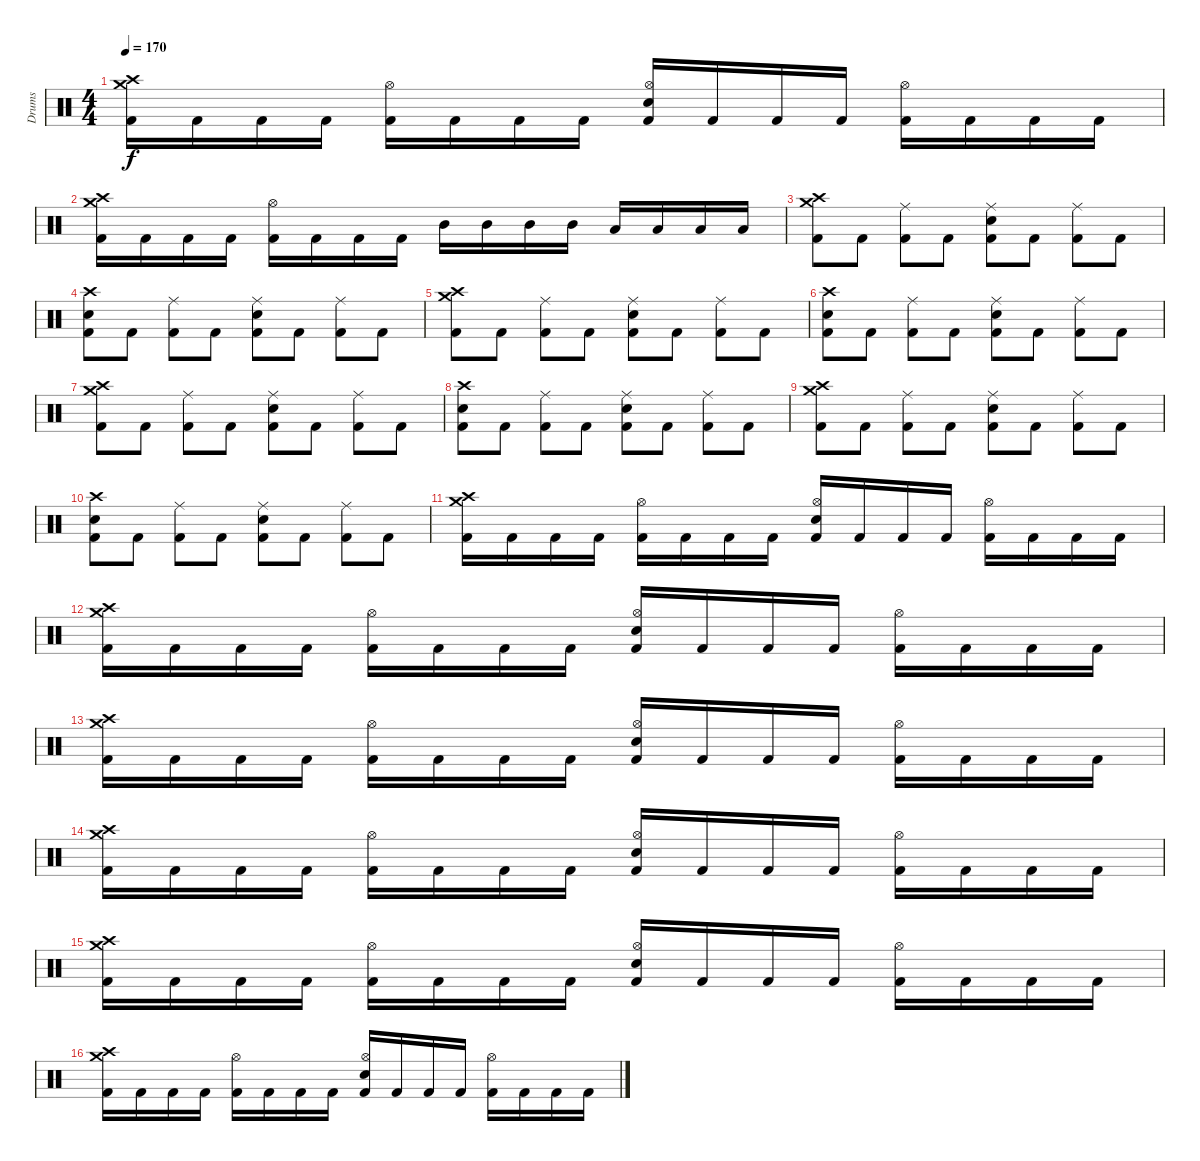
\track ("Drums" "Drums") {instrument percussion}
\staff {score}
\articulation defaults
\ts (4 4)
\tempo 170
\clef neutral
\ks c
("Crash medium (hit)" "Crash high (hit)" "Kick (hit) 2").16{dy f} "Kick (hit) 2".16 "Kick (hit) 2".16 "Kick (hit) 2".16 ("Hi-Hat (open)" "Kick (hit) 2").16 "Kick (hit) 2".16 "Kick (hit) 2".16 "Kick (hit) 2".16 ("Hi-Hat (open)" "Snare (hit) 2" "Kick (hit) 2").16 "Kick (hit) 2".16 "Kick (hit) 2".16 "Kick (hit) 2".16 ("Hi-Hat (open)" "Kick (hit) 2").16 "Kick (hit) 2".16 "Kick (hit) 2".16 "Kick (hit) 2".16 |
("Crash medium (hit)" "Crash high (hit)" "Kick (hit) 2").16 "Kick (hit) 2".16 "Kick (hit) 2".16 "Kick (hit) 2".16 ("Hi-Hat (open)" "Kick (hit) 2").16 "Kick (hit) 2".16 "Kick (hit) 2".16 "Kick (hit) 2".16 "Mid Tom (hit)".16 "Mid Tom (hit)".16 "Mid Tom (hit)".16 "Mid Tom (hit)".16 "Low Tom (hit)".16 "Low Tom (hit)".16 "Low Tom (hit)".16 "Low Tom (hit)".16 |
("Crash high (hit)" "Crash medium (hit)" "Kick (hit) 2").8 "Kick (hit) 2".8 ("Ride (middle)" "Kick (hit) 2").8 "Kick (hit) 2".8 ("Ride (middle)" "Snare (hit) 2" "Kick (hit) 2").8 "Kick (hit) 2".8 ("Ride (middle)" "Kick (hit) 2").8 "Kick (hit) 2".8 |
("Crash high (hit)" "Snare (hit) 2" "Kick (hit) 2").8 "Kick (hit) 2".8 ("Ride (middle)" "Kick (hit) 2").8 "Kick (hit) 2".8 ("Ride (middle)" "Snare (hit) 2" "Kick (hit) 2").8 "Kick (hit) 2".8 ("Ride (middle)" "Kick (hit) 2").8 "Kick (hit) 2".8 |
("Crash high (hit)" "Crash medium (hit)" "Kick (hit) 2").8 "Kick (hit) 2".8 ("Ride (middle)" "Kick (hit) 2").8 "Kick (hit) 2".8 ("Ride (middle)" "Snare (hit) 2" "Kick (hit) 2").8 "Kick (hit) 2".8 ("Ride (middle)" "Kick (hit) 2").8 "Kick (hit) 2".8 |
("Crash high (hit)" "Snare (hit) 2" "Kick (hit) 2").8 "Kick (hit) 2".8 ("Ride (middle)" "Kick (hit) 2").8 "Kick (hit) 2".8 ("Ride (middle)" "Snare (hit) 2" "Kick (hit) 2").8 "Kick (hit) 2".8 ("Ride (middle)" "Kick (hit) 2").8 "Kick (hit) 2".8 |
("Crash high (hit)" "Crash medium (hit)" "Kick (hit) 2").8 "Kick (hit) 2".8 ("Ride (middle)" "Kick (hit) 2").8 "Kick (hit) 2".8 ("Ride (middle)" "Snare (hit) 2" "Kick (hit) 2").8 "Kick (hit) 2".8 ("Ride (middle)" "Kick (hit) 2").8 "Kick (hit) 2".8 |
("Crash high (hit)" "Snare (hit) 2" "Kick (hit) 2").8 "Kick (hit) 2".8 ("Ride (middle)" "Kick (hit) 2").8 "Kick (hit) 2".8 ("Ride (middle)" "Snare (hit) 2" "Kick (hit) 2").8 "Kick (hit) 2".8 ("Ride (middle)" "Kick (hit) 2").8 "Kick (hit) 2".8 |
("Crash high (hit)" "Crash medium (hit)" "Kick (hit) 2").8 "Kick (hit) 2".8 ("Ride (middle)" "Kick (hit) 2").8 "Kick (hit) 2".8 ("Ride (middle)" "Snare (hit) 2" "Kick (hit) 2").8 "Kick (hit) 2".8 ("Ride (middle)" "Kick (hit) 2").8 "Kick (hit) 2".8 |
("Crash high (hit)" "Snare (hit) 2" "Kick (hit) 2").8 "Kick (hit) 2".8 ("Ride (middle)" "Kick (hit) 2").8 "Kick (hit) 2".8 ("Ride (middle)" "Snare (hit) 2" "Kick (hit) 2").8 "Kick (hit) 2".8 ("Ride (middle)" "Kick (hit) 2").8 "Kick (hit) 2".8 |
("Crash medium (hit)" "Crash high (hit)" "Kick (hit) 2").16 "Kick (hit) 2".16 "Kick (hit) 2".16 "Kick (hit) 2".16 ("Hi-Hat (open)" "Kick (hit) 2").16 "Kick (hit) 2".16 "Kick (hit) 2".16 "Kick (hit) 2".16 ("Hi-Hat (open)" "Snare (hit) 2" "Kick (hit) 2").16 "Kick (hit) 2".16 "Kick (hit) 2".16 "Kick (hit) 2".16 ("Hi-Hat (open)" "Kick (hit) 2").16 "Kick (hit) 2".16 "Kick (hit) 2".16 "Kick (hit) 2".16 |
("Crash medium (hit)" "Crash high (hit)" "Kick (hit) 2").16 "Kick (hit) 2".16 "Kick (hit) 2".16 "Kick (hit) 2".16 ("Hi-Hat (open)" "Kick (hit) 2").16 "Kick (hit) 2".16 "Kick (hit) 2".16 "Kick (hit) 2".16 ("Hi-Hat (open)" "Snare (hit) 2" "Kick (hit) 2").16 "Kick (hit) 2".16 "Kick (hit) 2".16 "Kick (hit) 2".16 ("Hi-Hat (open)" "Kick (hit) 2").16 "Kick (hit) 2".16 "Kick (hit) 2".16 "Kick (hit) 2".16 |
("Crash medium (hit)" "Crash high (hit)" "Kick (hit) 2").16 "Kick (hit) 2".16 "Kick (hit) 2".16 "Kick (hit) 2".16 ("Hi-Hat (open)" "Kick (hit) 2").16 "Kick (hit) 2".16 "Kick (hit) 2".16 "Kick (hit) 2".16 ("Hi-Hat (open)" "Snare (hit) 2" "Kick (hit) 2").16 "Kick (hit) 2".16 "Kick (hit) 2".16 "Kick (hit) 2".16 ("Hi-Hat (open)" "Kick (hit) 2").16 "Kick (hit) 2".16 "Kick (hit) 2".16 "Kick (hit) 2".16 |
("Crash medium (hit)" "Crash high (hit)" "Kick (hit) 2").16 "Kick (hit) 2".16 "Kick (hit) 2".16 "Kick (hit) 2".16 ("Hi-Hat (open)" "Kick (hit) 2").16 "Kick (hit) 2".16 "Kick (hit) 2".16 "Kick (hit) 2".16 ("Hi-Hat (open)" "Snare (hit) 2" "Kick (hit) 2").16 "Kick (hit) 2".16 "Kick (hit) 2".16 "Kick (hit) 2".16 ("Hi-Hat (open)" "Kick (hit) 2").16 "Kick (hit) 2".16 "Kick (hit) 2".16 "Kick (hit) 2".16 |
("Crash medium (hit)" "Crash high (hit)" "Kick (hit) 2").16 "Kick (hit) 2".16 "Kick (hit) 2".16 "Kick (hit) 2".16 ("Hi-Hat (open)" "Kick (hit) 2").16 "Kick (hit) 2".16 "Kick (hit) 2".16 "Kick (hit) 2".16 ("Hi-Hat (open)" "Snare (hit) 2" "Kick (hit) 2").16 "Kick (hit) 2".16 "Kick (hit) 2".16 "Kick (hit) 2".16 ("Hi-Hat (open)" "Kick (hit) 2").16 "Kick (hit) 2".16 "Kick (hit) 2".16 "Kick (hit) 2".16 |
("Crash medium (hit)" "Crash high (hit)" "Kick (hit) 2").16 "Kick (hit) 2".16 "Kick (hit) 2".16 "Kick (hit) 2".16 ("Hi-Hat (open)" "Kick (hit) 2").16 "Kick (hit) 2".16 "Kick (hit) 2".16 "Kick (hit) 2".16 ("Hi-Hat (open)" "Snare (hit) 2" "Kick (hit) 2").16 "Kick (hit) 2".16 "Kick (hit) 2".16 "Kick (hit) 2".16 ("Hi-Hat (open)" "Kick (hit) 2").16 "Kick (hit) 2".16 "Kick (hit) 2".16 "Kick (hit) 2".16
